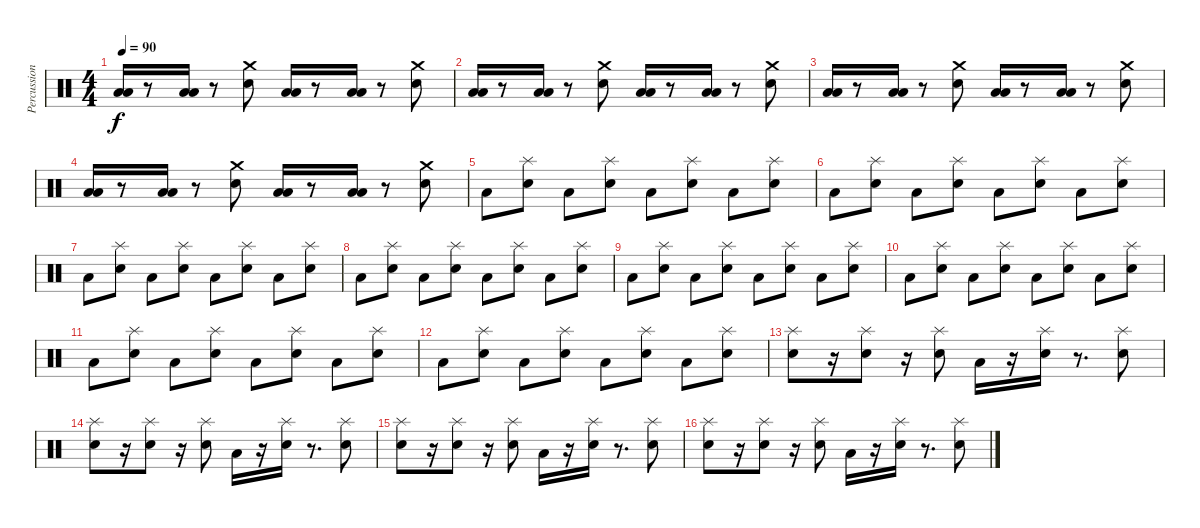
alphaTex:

\track ("Percussions" "Percussion") {instrument percussion}
\staff {score}
\articulation defaults
\ts (4 4)
\tempo 90
\clef neutral
\ks c
("Low Floor Tom (hit)" "Low Floor Tom (hit)").16{dy f} r.8 ("Low Floor Tom (hit)" "Low Floor Tom (hit)").16 r.8 ("Snare (hit) 2" "Crash medium (hit)").8 ("Low Floor Tom (hit)" "Low Floor Tom (hit)").16 r.8 ("Low Floor Tom (hit)" "Low Floor Tom (hit)").16 r.8 ("Snare (hit) 2" "Crash medium (hit)").8 |
("Low Floor Tom (hit)" "Low Floor Tom (hit)").16 r.8 ("Low Floor Tom (hit)" "Low Floor Tom (hit)").16 r.8 ("Snare (hit) 2" "Crash medium (hit)").8 ("Low Floor Tom (hit)" "Low Floor Tom (hit)").16 r.8 ("Low Floor Tom (hit)" "Low Floor Tom (hit)").16 r.8 ("Snare (hit) 2" "Crash medium (hit)").8 |
("Low Floor Tom (hit)" "Low Floor Tom (hit)").16 r.8 ("Low Floor Tom (hit)" "Low Floor Tom (hit)").16 r.8 ("Snare (hit) 2" "Crash medium (hit)").8 ("Low Floor Tom (hit)" "Low Floor Tom (hit)").16 r.8 ("Low Floor Tom (hit)" "Low Floor Tom (hit)").16 r.8 ("Snare (hit) 2" "Crash medium (hit)").8 |
("Low Floor Tom (hit)" "Low Floor Tom (hit)").16 r.8 ("Low Floor Tom (hit)" "Low Floor Tom (hit)").16 r.8 ("Snare (hit) 2" "Crash medium (hit)").8 ("Low Floor Tom (hit)" "Low Floor Tom (hit)").16 r.8 ("Low Floor Tom (hit)" "Low Floor Tom (hit)").16 r.8 ("Snare (hit) 2" "Crash medium (hit)").8 |
"Low Floor Tom (hit)".8 ("Snare (hit) 2" "Splash (hit)").8 "Low Floor Tom (hit)".8 ("Snare (hit) 2" "Splash (hit)").8 "Low Floor Tom (hit)".8 ("Snare (hit) 2" "Splash (hit)").8 "Low Floor Tom (hit)".8 ("Snare (hit) 2" "Splash (hit)").8 |
"Low Floor Tom (hit)".8 ("Snare (hit) 2" "Splash (hit)").8 "Low Floor Tom (hit)".8 ("Snare (hit) 2" "Splash (hit)").8 "Low Floor Tom (hit)".8 ("Snare (hit) 2" "Splash (hit)").8 "Low Floor Tom (hit)".8 ("Snare (hit) 2" "Splash (hit)").8 |
"Low Floor Tom (hit)".8 ("Snare (hit) 2" "Splash (hit)").8 "Low Floor Tom (hit)".8 ("Snare (hit) 2" "Splash (hit)").8 "Low Floor Tom (hit)".8 ("Snare (hit) 2" "Splash (hit)").8 "Low Floor Tom (hit)".8 ("Snare (hit) 2" "Splash (hit)").8 |
"Low Floor Tom (hit)".8 ("Snare (hit) 2" "Splash (hit)").8 "Low Floor Tom (hit)".8 ("Snare (hit) 2" "Splash (hit)").8 "Low Floor Tom (hit)".8 ("Snare (hit) 2" "Splash (hit)").8 "Low Floor Tom (hit)".8 ("Snare (hit) 2" "Splash (hit)").8 |
"Low Floor Tom (hit)".8 ("Snare (hit) 2" "Splash (hit)").8 "Low Floor Tom (hit)".8 ("Snare (hit) 2" "Splash (hit)").8 "Low Floor Tom (hit)".8 ("Snare (hit) 2" "Splash (hit)").8 "Low Floor Tom (hit)".8 ("Snare (hit) 2" "Splash (hit)").8 |
"Low Floor Tom (hit)".8 ("Snare (hit) 2" "Splash (hit)").8 "Low Floor Tom (hit)".8 ("Snare (hit) 2" "Splash (hit)").8 "Low Floor Tom (hit)".8 ("Snare (hit) 2" "Splash (hit)").8 "Low Floor Tom (hit)".8 ("Snare (hit) 2" "Splash (hit)").8 |
"Low Floor Tom (hit)".8 ("Snare (hit) 2" "Splash (hit)").8 "Low Floor Tom (hit)".8 ("Snare (hit) 2" "Splash (hit)").8 "Low Floor Tom (hit)".8 ("Snare (hit) 2" "Splash (hit)").8 "Low Floor Tom (hit)".8 ("Snare (hit) 2" "Splash (hit)").8 |
"Low Floor Tom (hit)".8 ("Snare (hit) 2" "Splash (hit)").8 "Low Floor Tom (hit)".8 ("Snare (hit) 2" "Splash (hit)").8 "Low Floor Tom (hit)".8 ("Snare (hit) 2" "Splash (hit)").8 "Low Floor Tom (hit)".8 ("Snare (hit) 2" "Splash (hit)").8 |
("Snare (hit) 2" "Splash (hit)").8 r.16 ("Snare (hit) 2" "Splash (hit)").8 r.16 ("Snare (hit) 2" "Splash (hit)").8 "Low Floor Tom (hit)".16 r.16 ("Snare (hit) 2" "Splash (hit)").16 r.8{d} ("Snare (hit) 2" "Splash (hit)").8 |
("Snare (hit) 2" "Splash (hit)").8 r.16 ("Snare (hit) 2" "Splash (hit)").8 r.16 ("Snare (hit) 2" "Splash (hit)").8 "Low Floor Tom (hit)".16 r.16 ("Snare (hit) 2" "Splash (hit)").16 r.8{d} ("Snare (hit) 2" "Splash (hit)").8 |
("Snare (hit) 2" "Splash (hit)").8 r.16 ("Snare (hit) 2" "Splash (hit)").8 r.16 ("Snare (hit) 2" "Splash (hit)").8 "Low Floor Tom (hit)".16 r.16 ("Snare (hit) 2" "Splash (hit)").16 r.8{d} ("Snare (hit) 2" "Splash (hit)").8 |
("Snare (hit) 2" "Splash (hit)").8 r.16 ("Snare (hit) 2" "Splash (hit)").8 r.16 ("Snare (hit) 2" "Splash (hit)").8 "Low Floor Tom (hit)".16 r.16 ("Snare (hit) 2" "Splash (hit)").16 r.8{d} ("Snare (hit) 2" "Splash (hit)").8
